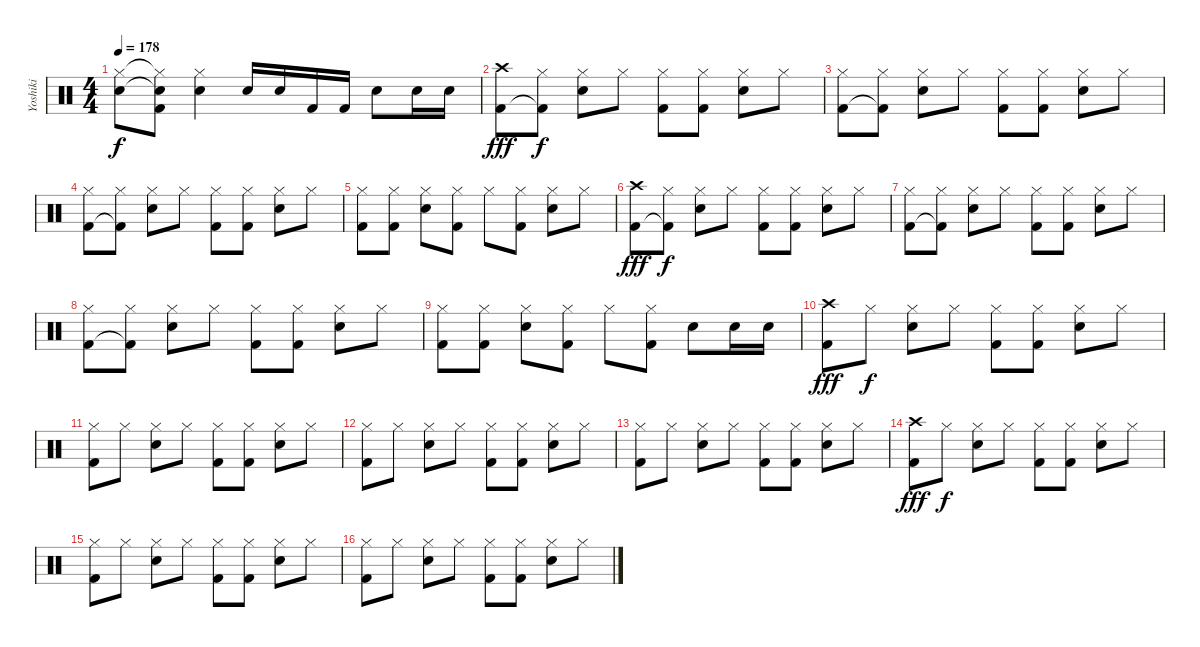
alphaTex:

\track ("Yoshiki" "Yoshiki") {instrument percussion}
\staff {score}
\articulation defaults
\ts (4 4)
\tempo 178
\clef neutral
\ks c
("Hi-Hat (closed)" "Snare (hit) 2").8{dy f} ("Hi-Hat (closed)"{t} "Snare (hit) 2"{t} "Kick (hit) 2").8 ("Hi-Hat (closed)" "Snare (hit) 2").4 "Snare (hit) 2".16 "Snare (hit) 2".16 "Kick (hit) 2".16 "Kick (hit) 2".16 "Snare (hit) 2".8 "Snare (hit) 2".16 "Snare (hit) 2".16 |
("Crash high (hit)" "Kick (hit) 2").8{dy fff} ("Hi-Hat (closed)" "Kick (hit) 2"{t}).8{dy f} ("Hi-Hat (closed)" "Snare (hit) 2").8 "Hi-Hat (closed)".8 ("Hi-Hat (closed)" "Kick (hit) 2").8 ("Hi-Hat (closed)" "Kick (hit) 2").8 ("Hi-Hat (closed)" "Snare (hit) 2").8 "Hi-Hat (closed)".8 |
("Hi-Hat (closed)" "Kick (hit) 2").8 ("Hi-Hat (closed)" "Kick (hit) 2"{t}).8 ("Hi-Hat (closed)" "Snare (hit) 2").8 "Hi-Hat (closed)".8 ("Hi-Hat (closed)" "Kick (hit) 2").8 ("Hi-Hat (closed)" "Kick (hit) 2").8 ("Hi-Hat (closed)" "Snare (hit) 2").8 "Hi-Hat (closed)".8 |
("Hi-Hat (closed)" "Kick (hit) 2").8 ("Hi-Hat (closed)" "Kick (hit) 2"{t}).8 ("Hi-Hat (closed)" "Snare (hit) 2").8 "Hi-Hat (closed)".8 ("Hi-Hat (closed)" "Kick (hit) 2").8 ("Hi-Hat (closed)" "Kick (hit) 2").8 ("Hi-Hat (closed)" "Snare (hit) 2").8 "Hi-Hat (closed)".8 |
("Hi-Hat (closed)" "Kick (hit) 2").8 ("Hi-Hat (closed)" "Kick (hit) 2").8 ("Hi-Hat (closed)" "Snare (hit) 2").8 ("Hi-Hat (closed)" "Kick (hit) 2").8 "Hi-Hat (closed)".8 ("Hi-Hat (closed)" "Kick (hit) 2").8 ("Hi-Hat (closed)" "Snare (hit) 2").8 "Hi-Hat (closed)".8 |
("Crash high (hit)" "Kick (hit) 2").8{dy fff} ("Hi-Hat (closed)" "Kick (hit) 2"{t}).8{dy f} ("Hi-Hat (closed)" "Snare (hit) 2").8 "Hi-Hat (closed)".8 ("Hi-Hat (closed)" "Kick (hit) 2").8 ("Hi-Hat (closed)" "Kick (hit) 2").8 ("Hi-Hat (closed)" "Snare (hit) 2").8 "Hi-Hat (closed)".8 |
("Hi-Hat (closed)" "Kick (hit) 2").8 ("Hi-Hat (closed)" "Kick (hit) 2"{t}).8 ("Hi-Hat (closed)" "Snare (hit) 2").8 "Hi-Hat (closed)".8 ("Hi-Hat (closed)" "Kick (hit) 2").8 ("Hi-Hat (closed)" "Kick (hit) 2").8 ("Hi-Hat (closed)" "Snare (hit) 2").8 "Hi-Hat (closed)".8 |
("Hi-Hat (closed)" "Kick (hit) 2").8 ("Hi-Hat (closed)" "Kick (hit) 2"{t}).8 ("Hi-Hat (closed)" "Snare (hit) 2").8 "Hi-Hat (closed)".8 ("Hi-Hat (closed)" "Kick (hit) 2").8 ("Hi-Hat (closed)" "Kick (hit) 2").8 ("Hi-Hat (closed)" "Snare (hit) 2").8 "Hi-Hat (closed)".8 |
("Hi-Hat (closed)" "Kick (hit) 2").8 ("Hi-Hat (closed)" "Kick (hit) 2").8 ("Hi-Hat (closed)" "Snare (hit) 2").8 ("Hi-Hat (closed)" "Kick (hit) 2").8 "Hi-Hat (closed)".8 ("Hi-Hat (closed)" "Kick (hit) 2").8 "Snare (hit) 2".8 "Snare (hit) 2".16 "Snare (hit) 2".16 |
("Crash high (hit)" "Kick (hit) 2").8{dy fff} "Hi-Hat (closed)".8{dy f} ("Hi-Hat (closed)" "Snare (hit) 2").8 "Hi-Hat (closed)".8 ("Hi-Hat (closed)" "Kick (hit) 2").8 ("Hi-Hat (closed)" "Kick (hit) 2").8 ("Hi-Hat (closed)" "Snare (hit) 2").8 "Hi-Hat (closed)".8 |
("Hi-Hat (closed)" "Kick (hit) 2").8 "Hi-Hat (closed)".8 ("Hi-Hat (closed)" "Snare (hit) 2").8 "Hi-Hat (closed)".8 ("Hi-Hat (closed)" "Kick (hit) 2").8 ("Hi-Hat (closed)" "Kick (hit) 2").8 ("Hi-Hat (closed)" "Snare (hit) 2").8 "Hi-Hat (closed)".8 |
("Hi-Hat (closed)" "Kick (hit) 2").8 "Hi-Hat (closed)".8 ("Hi-Hat (closed)" "Snare (hit) 2").8 "Hi-Hat (closed)".8 ("Hi-Hat (closed)" "Kick (hit) 2").8 ("Hi-Hat (closed)" "Kick (hit) 2").8 ("Hi-Hat (closed)" "Snare (hit) 2").8 "Hi-Hat (closed)".8 |
("Hi-Hat (closed)" "Kick (hit) 2").8 "Hi-Hat (closed)".8 ("Hi-Hat (closed)" "Snare (hit) 2").8 "Hi-Hat (closed)".8 ("Hi-Hat (closed)" "Kick (hit) 2").8 ("Hi-Hat (closed)" "Kick (hit) 2").8 ("Hi-Hat (closed)" "Snare (hit) 2").8 "Hi-Hat (closed)".8 |
("Crash high (hit)" "Kick (hit) 2").8{dy fff} "Hi-Hat (closed)".8{dy f} ("Hi-Hat (closed)" "Snare (hit) 2").8 "Hi-Hat (closed)".8 ("Hi-Hat (closed)" "Kick (hit) 2").8 ("Hi-Hat (closed)" "Kick (hit) 2").8 ("Hi-Hat (closed)" "Snare (hit) 2").8 "Hi-Hat (closed)".8 |
("Hi-Hat (closed)" "Kick (hit) 2").8 "Hi-Hat (closed)".8 ("Hi-Hat (closed)" "Snare (hit) 2").8 "Hi-Hat (closed)".8 ("Hi-Hat (closed)" "Kick (hit) 2").8 ("Hi-Hat (closed)" "Kick (hit) 2").8 ("Hi-Hat (closed)" "Snare (hit) 2").8 "Hi-Hat (closed)".8 |
("Hi-Hat (closed)" "Kick (hit) 2").8 "Hi-Hat (closed)".8 ("Hi-Hat (closed)" "Snare (hit) 2").8 "Hi-Hat (closed)".8 ("Hi-Hat (closed)" "Kick (hit) 2").8 ("Hi-Hat (closed)" "Kick (hit) 2").8 ("Hi-Hat (closed)" "Snare (hit) 2").8 "Hi-Hat (closed)".8
